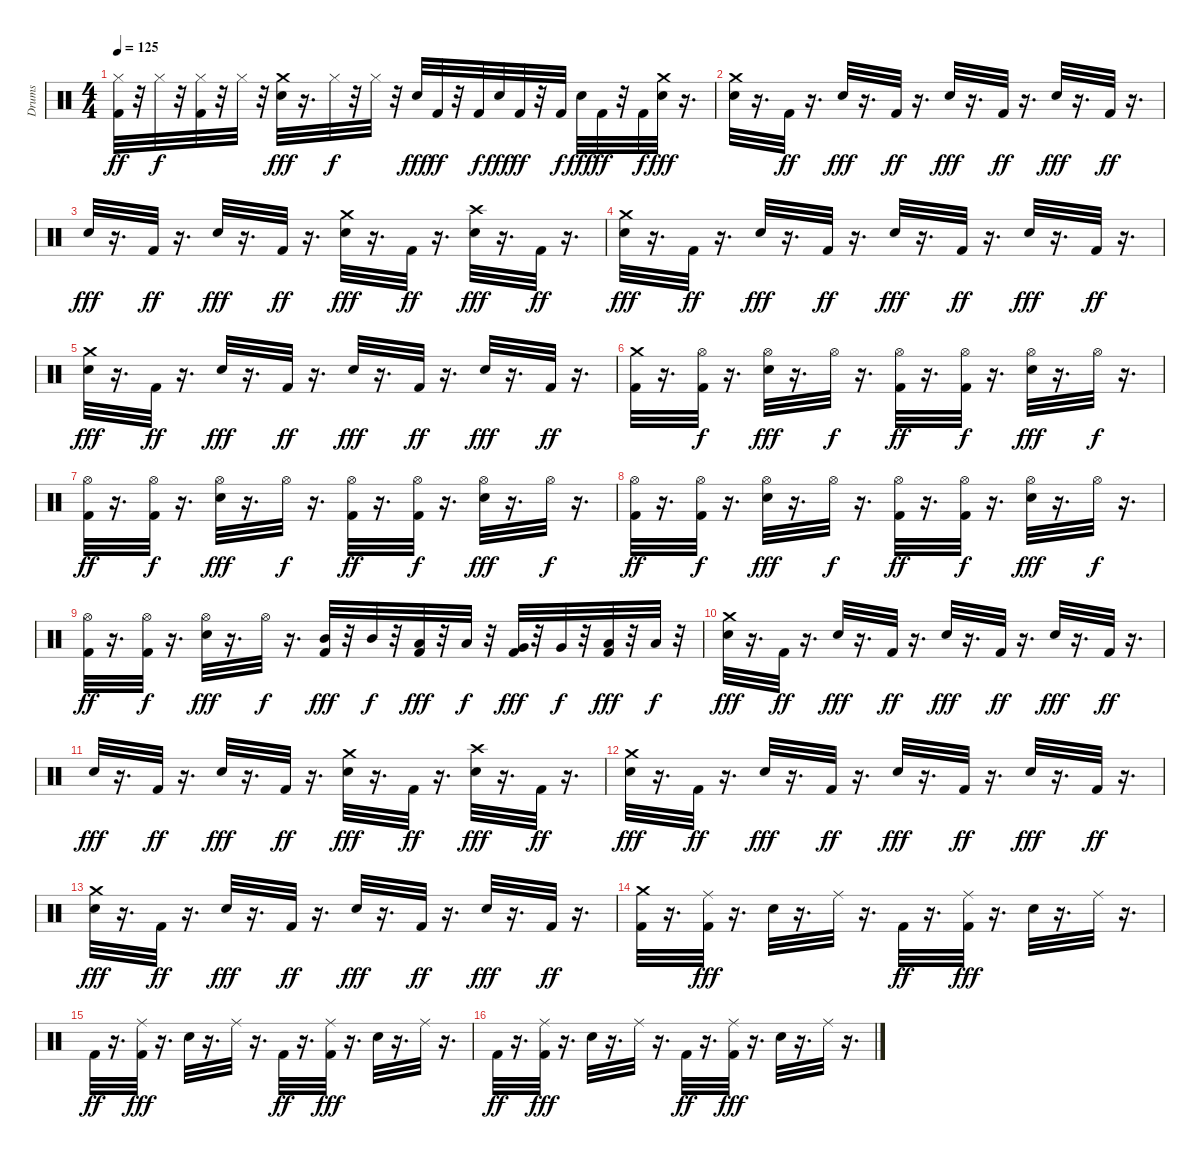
\track ("Drums" "Drums") {instrument percussion}
\staff {score}
\articulation defaults
\ts (4 4)
\tempo 125
\clef neutral
\ks c
("Hi-Hat (closed)" "Kick (hit) 2").32{dy ff} r.32 "Hi-Hat (closed)".32{dy f} r.32 ("Kick (hit) 2" "Hi-Hat (closed)").32 r.32 "Hi-Hat (closed)".32 r.32 ("Crash medium (hit)" "Snare (hit) 2").32{dy fff} r.16{d} "Hi-Hat (closed)".32{dy f} r.32 "Hi-Hat (closed)".32 r.32 "Snare (hit) 2".32{dy fff} "Kick (hit) 2".32{dy ff} r.32 "Kick (hit) 2".32{dy f} "Snare (hit) 2".32{dy fff} "Kick (hit) 2".32{dy ff} r.32 "Kick (hit) 2".32{dy f} "Snare (hit) 2".32{dy fff} "Kick (hit) 2".32{dy ff} r.32 "Kick (hit) 2".32{dy f} ("Crash medium (hit)" "Snare (hit) 2").32{dy fff} r.16{d} |
("Crash medium (hit)" "Snare (hit) 2").32 r.16{d} "Kick (hit) 2".32{dy ff} r.16{d} "Snare (hit) 2".32{dy fff} r.16{d} "Kick (hit) 2".32{dy ff} r.16{d} "Snare (hit) 2".32{dy fff} r.16{d} "Kick (hit) 2".32{dy ff} r.16{d} "Snare (hit) 2".32{dy fff} r.16{d} "Kick (hit) 2".32{dy ff} r.16{d} |
"Snare (hit) 2".32{dy fff} r.16{d} "Kick (hit) 2".32{dy ff} r.16{d} "Snare (hit) 2".32{dy fff} r.16{d} "Kick (hit) 2".32{dy ff} r.16{d} ("Crash medium (hit)" "Snare (hit) 2").32{dy fff} r.16{d} "Kick (hit) 2".32{dy ff} r.16{d} ("Crash high (hit)" "Snare (hit) 2").32{dy fff} r.16{d} "Kick (hit) 2".32{dy ff} r.16{d} |
("Snare (hit) 2" "Crash medium (hit)").32{dy fff} r.16{d} "Kick (hit) 2".32{dy ff} r.16{d} "Snare (hit) 2".32{dy fff} r.16{d} "Kick (hit) 2".32{dy ff} r.16{d} "Snare (hit) 2".32{dy fff} r.16{d} "Kick (hit) 2".32{dy ff} r.16{d} "Snare (hit) 2".32{dy fff} r.16{d} "Kick (hit) 2".32{dy ff} r.16{d} |
("Snare (hit) 2" "Crash medium (hit)").32{dy fff} r.16{d} "Kick (hit) 2".32{dy ff} r.16{d} "Snare (hit) 2".32{dy fff} r.16{d} "Kick (hit) 2".32{dy ff} r.16{d} "Snare (hit) 2".32{dy fff} r.16{d} "Kick (hit) 2".32{dy ff} r.16{d} "Snare (hit) 2".32{dy fff} r.16{d} "Kick (hit) 2".32{dy ff} r.16{d} |
("Crash medium (hit)" "Kick (hit) 2").32 r.16{d} ("Kick (hit) 2" "Hi-Hat (open)").32{dy f} r.16{d} ("Snare (hit) 2" "Hi-Hat (open)").32{dy fff} r.16{d} "Hi-Hat (open)".32{dy f} r.16{d} ("Kick (hit) 2" "Hi-Hat (open)").32{dy ff} r.16{d} ("Kick (hit) 2" "Hi-Hat (open)").32{dy f} r.16{d} ("Snare (hit) 2" "Hi-Hat (open)").32{dy fff} r.16{d} "Hi-Hat (open)".32{dy f} r.16{d} |
("Kick (hit) 2" "Hi-Hat (open)").32{dy ff} r.16{d} ("Kick (hit) 2" "Hi-Hat (open)").32{dy f} r.16{d} ("Snare (hit) 2" "Hi-Hat (open)").32{dy fff} r.16{d} "Hi-Hat (open)".32{dy f} r.16{d} ("Kick (hit) 2" "Hi-Hat (open)").32{dy ff} r.16{d} ("Kick (hit) 2" "Hi-Hat (open)").32{dy f} r.16{d} ("Snare (hit) 2" "Hi-Hat (open)").32{dy fff} r.16{d} "Hi-Hat (open)".32{dy f} r.16{d} |
("Kick (hit) 2" "Hi-Hat (open)").32{dy ff} r.16{d} ("Kick (hit) 2" "Hi-Hat (open)").32{dy f} r.16{d} ("Snare (hit) 2" "Hi-Hat (open)").32{dy fff} r.16{d} "Hi-Hat (open)".32{dy f} r.16{d} ("Kick (hit) 2" "Hi-Hat (open)").32{dy ff} r.16{d} ("Kick (hit) 2" "Hi-Hat (open)").32{dy f} r.16{d} ("Snare (hit) 2" "Hi-Hat (open)").32{dy fff} r.16{d} "Hi-Hat (open)".32{dy f} r.16{d} |
("Kick (hit) 2" "Hi-Hat (open)").32{dy ff} r.16{d} ("Kick (hit) 2" "Hi-Hat (open)").32{dy f} r.16{d} ("Snare (hit) 2" "Hi-Hat (open)").32{dy fff} r.16{d} "Hi-Hat (open)".32{dy f} r.16{d} ("Kick (hit) 2" "Mid Tom (hit)").32{dy fff} r.32 "Mid Tom (hit)".32{dy f} r.32 ("Kick (hit) 2" "Low Tom (hit)").32{dy fff} r.32 "Low Tom (hit)".32{dy f} r.32 ("Kick (hit) 2" "Very Low Tom (hit)").32{dy fff} r.32 "Very Low Tom (hit)".32{dy f} r.32 ("Kick (hit) 2" "Low Floor Tom (hit)").32{dy fff} r.32 "Low Floor Tom (hit)".32{dy f} r.32 |
("Crash medium (hit)" "Snare (hit) 2").32{dy fff} r.16{d} "Kick (hit) 2".32{dy ff} r.16{d} "Snare (hit) 2".32{dy fff} r.16{d} "Kick (hit) 2".32{dy ff} r.16{d} "Snare (hit) 2".32{dy fff} r.16{d} "Kick (hit) 2".32{dy ff} r.16{d} "Snare (hit) 2".32{dy fff} r.16{d} "Kick (hit) 2".32{dy ff} r.16{d} |
"Snare (hit) 2".32{dy fff} r.16{d} "Kick (hit) 2".32{dy ff} r.16{d} "Snare (hit) 2".32{dy fff} r.16{d} "Kick (hit) 2".32{dy ff} r.16{d} ("Crash medium (hit)" "Snare (hit) 2").32{dy fff} r.16{d} "Kick (hit) 2".32{dy ff} r.16{d} ("Crash high (hit)" "Snare (hit) 2").32{dy fff} r.16{d} "Kick (hit) 2".32{dy ff} r.16{d} |
("Snare (hit) 2" "Crash medium (hit)").32{dy fff} r.16{d} "Kick (hit) 2".32{dy ff} r.16{d} "Snare (hit) 2".32{dy fff} r.16{d} "Kick (hit) 2".32{dy ff} r.16{d} "Snare (hit) 2".32{dy fff} r.16{d} "Kick (hit) 2".32{dy ff} r.16{d} "Snare (hit) 2".32{dy fff} r.16{d} "Kick (hit) 2".32{dy ff} r.16{d} |
("Snare (hit) 2" "Crash medium (hit)").32{dy fff} r.16{d} "Kick (hit) 2".32{dy ff} r.16{d} "Snare (hit) 2".32{dy fff} r.16{d} "Kick (hit) 2".32{dy ff} r.16{d} "Snare (hit) 2".32{dy fff} r.16{d} "Kick (hit) 2".32{dy ff} r.16{d} "Snare (hit) 2".32{dy fff} r.16{d} "Kick (hit) 2".32{dy ff} r.16{d} |
("Crash medium (hit)" "Kick (hit) 2").32 r.16{d} ("Ride (middle)" "Kick (hit) 2").32{dy fff} r.16{d} "Snare (hit) 2".32 r.16{d} "Ride (middle)".32 r.16{d} "Kick (hit) 2".32{dy ff} r.16{d} ("Ride (middle)" "Kick (hit) 2").32{dy fff} r.16{d} "Snare (hit) 2".32 r.16{d} "Ride (middle)".32 r.16{d} |
"Kick (hit) 2".32{dy ff} r.16{d} ("Ride (middle)" "Kick (hit) 2").32{dy fff} r.16{d} "Snare (hit) 2".32 r.16{d} "Ride (middle)".32 r.16{d} "Kick (hit) 2".32{dy ff} r.16{d} ("Ride (middle)" "Kick (hit) 2").32{dy fff} r.16{d} "Snare (hit) 2".32 r.16{d} "Ride (middle)".32 r.16{d} |
"Kick (hit) 2".32{dy ff} r.16{d} ("Ride (middle)" "Kick (hit) 2").32{dy fff} r.16{d} "Snare (hit) 2".32 r.16{d} "Ride (middle)".32 r.16{d} "Kick (hit) 2".32{dy ff} r.16{d} ("Ride (middle)" "Kick (hit) 2").32{dy fff} r.16{d} "Snare (hit) 2".32 r.16{d} "Ride (middle)".32 r.16{d}
